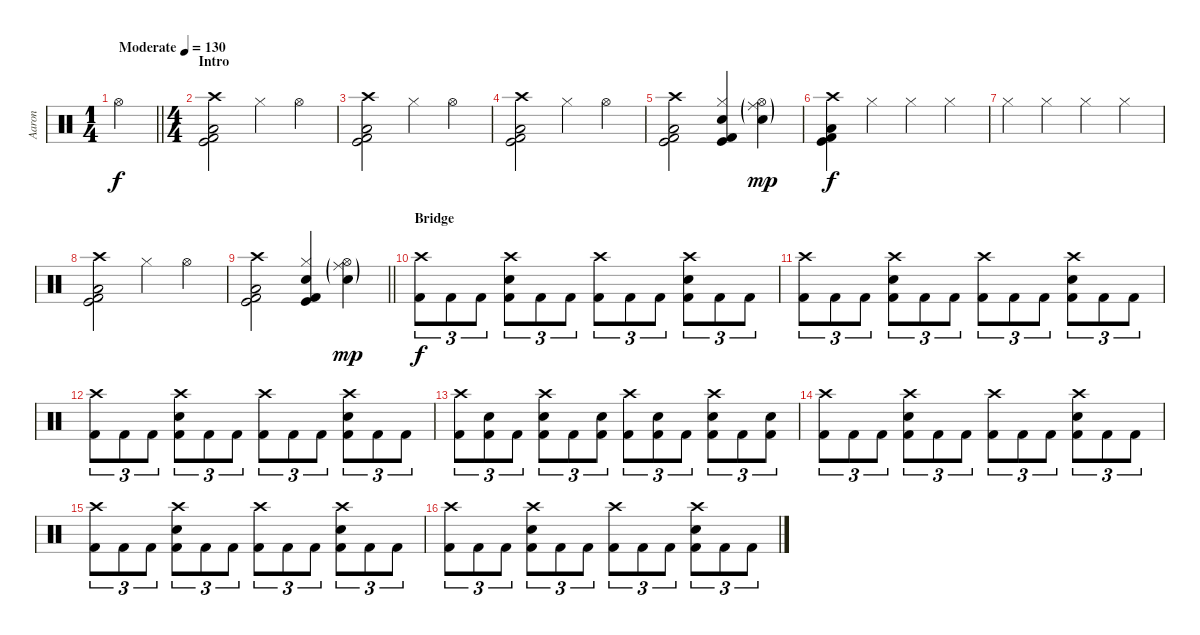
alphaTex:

\track ("Aaron" "Aaron") {instrument percussion}
\staff {score}
\articulation defaults
\ts (1 4)
\tempo (130 "Moderate")
\clef neutral
\barLineRight lightlight
\ks c "Hi-Hat (open)".4{dy f}
|
\ts (4 4)
\section ("" "Intro")
("Crash high (hit)" "Kick (hit)" "Kick (hit) 2" "Low Floor Tom (hit)").2 "Hi-Hat (closed)".4 "Hi-Hat (open)".4 |
("Crash high (hit)" "Kick (hit)" "Kick (hit) 2" "Low Floor Tom (hit)").2 "Hi-Hat (closed)".4 "Hi-Hat (open)".4 |
("Crash high (hit)" "Kick (hit)" "Kick (hit) 2" "Low Floor Tom (hit)").2 "Hi-Hat (closed)".4 "Hi-Hat (open)".4 |
("Crash high (hit)" "Kick (hit)" "Kick (hit) 2" "Low Floor Tom (hit)").2 ("Hi-Hat (closed)" "Kick (hit)" "Kick (hit) 2" "Snare (hit) 2").4 ("Snare (hit) 2"{g} "Hi-Hat (open)"{g} "Ride (middle)"{g}).4{dy mp} |
("Crash high (hit)" "Kick (hit)" "Kick (hit) 2" "Low Floor Tom (hit)").4{dy f} "Hi-Hat (closed)".4 "Hi-Hat (closed)".4 "Hi-Hat (closed)".4 |
"Hi-Hat (closed)".4 "Hi-Hat (closed)".4 "Hi-Hat (closed)".4 "Hi-Hat (closed)".4 |
("Crash high (hit)" "Kick (hit)" "Kick (hit) 2" "Low Floor Tom (hit)").2 "Hi-Hat (closed)".4 "Hi-Hat (open)".4 |
\barLineRight lightlight
("Crash high (hit)" "Kick (hit)" "Kick (hit) 2" "Low Floor Tom (hit)").2 ("Hi-Hat (closed)" "Kick (hit)" "Kick (hit) 2" "Snare (hit) 2").4 ("Snare (hit) 2"{g} "Hi-Hat (open)"{g} "Ride (middle)"{g}).4{dy mp} |
\section ("" "Bridge")
("Crash high (hit)" "Kick (hit) 2").8{tu (3 2) dy f} "Kick (hit) 2".8{tu (3 2)} "Kick (hit) 2".8{tu (3 2)} ("Crash high (hit)" "Kick (hit) 2" "Snare (hit) 2").8{tu (3 2)} "Kick (hit) 2".8{tu (3 2)} "Kick (hit) 2".8{tu (3 2)} ("Crash high (hit)" "Kick (hit) 2").8{tu (3 2)} "Kick (hit) 2".8{tu (3 2)} "Kick (hit) 2".8{tu (3 2)} ("Crash high (hit)" "Kick (hit) 2" "Snare (hit) 2").8{tu (3 2)} "Kick (hit) 2".8{tu (3 2)} "Kick (hit) 2".8{tu (3 2)} |
("Crash high (hit)" "Kick (hit) 2").8{tu (3 2)} "Kick (hit) 2".8{tu (3 2)} "Kick (hit) 2".8{tu (3 2)} ("Crash high (hit)" "Kick (hit) 2" "Snare (hit) 2").8{tu (3 2)} "Kick (hit) 2".8{tu (3 2)} "Kick (hit) 2".8{tu (3 2)} ("Crash high (hit)" "Kick (hit) 2").8{tu (3 2)} "Kick (hit) 2".8{tu (3 2)} "Kick (hit) 2".8{tu (3 2)} ("Crash high (hit)" "Kick (hit) 2" "Snare (hit) 2").8{tu (3 2)} "Kick (hit) 2".8{tu (3 2)} "Kick (hit) 2".8{tu (3 2)} |
("Crash high (hit)" "Kick (hit) 2").8{tu (3 2)} "Kick (hit) 2".8{tu (3 2)} "Kick (hit) 2".8{tu (3 2)} ("Crash high (hit)" "Kick (hit) 2" "Snare (hit) 2").8{tu (3 2)} "Kick (hit) 2".8{tu (3 2)} "Kick (hit) 2".8{tu (3 2)} ("Crash high (hit)" "Kick (hit) 2").8{tu (3 2)} "Kick (hit) 2".8{tu (3 2)} "Kick (hit) 2".8{tu (3 2)} ("Crash high (hit)" "Kick (hit) 2" "Snare (hit) 2").8{tu (3 2)} "Kick (hit) 2".8{tu (3 2)} "Kick (hit) 2".8{tu (3 2)} |
("Crash high (hit)" "Kick (hit) 2").8{tu (3 2)} ("Snare (hit) 2" "Kick (hit) 2").8{tu (3 2)} "Kick (hit) 2".8{tu (3 2)} ("Crash high (hit)" "Kick (hit) 2" "Snare (hit) 2").8{tu (3 2)} "Kick (hit) 2".8{tu (3 2)} ("Snare (hit) 2" "Kick (hit) 2").8{tu (3 2)} ("Crash high (hit)" "Kick (hit) 2").8{tu (3 2)} ("Snare (hit) 2" "Kick (hit) 2").8{tu (3 2)} "Kick (hit) 2".8{tu (3 2)} ("Crash high (hit)" "Kick (hit) 2" "Snare (hit) 2").8{tu (3 2)} "Kick (hit) 2".8{tu (3 2)} ("Snare (hit) 2" "Kick (hit) 2").8{tu (3 2)} |
("Crash high (hit)" "Kick (hit) 2").8{tu (3 2)} "Kick (hit) 2".8{tu (3 2)} "Kick (hit) 2".8{tu (3 2)} ("Crash high (hit)" "Kick (hit) 2" "Snare (hit) 2").8{tu (3 2)} "Kick (hit) 2".8{tu (3 2)} "Kick (hit) 2".8{tu (3 2)} ("Crash high (hit)" "Kick (hit) 2").8{tu (3 2)} "Kick (hit) 2".8{tu (3 2)} "Kick (hit) 2".8{tu (3 2)} ("Crash high (hit)" "Kick (hit) 2" "Snare (hit) 2").8{tu (3 2)} "Kick (hit) 2".8{tu (3 2)} "Kick (hit) 2".8{tu (3 2)} |
("Crash high (hit)" "Kick (hit) 2").8{tu (3 2)} "Kick (hit) 2".8{tu (3 2)} "Kick (hit) 2".8{tu (3 2)} ("Crash high (hit)" "Kick (hit) 2" "Snare (hit) 2").8{tu (3 2)} "Kick (hit) 2".8{tu (3 2)} "Kick (hit) 2".8{tu (3 2)} ("Crash high (hit)" "Kick (hit) 2").8{tu (3 2)} "Kick (hit) 2".8{tu (3 2)} "Kick (hit) 2".8{tu (3 2)} ("Crash high (hit)" "Kick (hit) 2" "Snare (hit) 2").8{tu (3 2)} "Kick (hit) 2".8{tu (3 2)} "Kick (hit) 2".8{tu (3 2)} |
("Crash high (hit)" "Kick (hit) 2").8{tu (3 2)} "Kick (hit) 2".8{tu (3 2)} "Kick (hit) 2".8{tu (3 2)} ("Crash high (hit)" "Kick (hit) 2" "Snare (hit) 2").8{tu (3 2)} "Kick (hit) 2".8{tu (3 2)} "Kick (hit) 2".8{tu (3 2)} ("Crash high (hit)" "Kick (hit) 2").8{tu (3 2)} "Kick (hit) 2".8{tu (3 2)} "Kick (hit) 2".8{tu (3 2)} ("Crash high (hit)" "Kick (hit) 2" "Snare (hit) 2").8{tu (3 2)} "Kick (hit) 2".8{tu (3 2)} "Kick (hit) 2".8{tu (3 2)}
